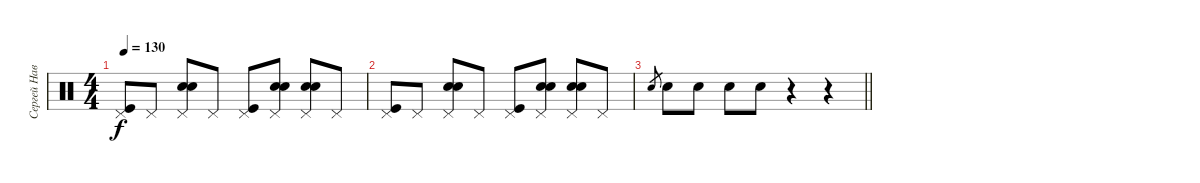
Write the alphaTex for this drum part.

\track ("Сергей Наветный" "Сергей Нав") {instrument percussion}
\staff {score}
\articulation defaults
\ts (4 4)
\tempo 130
\clef neutral
\ks c
("Kick (hit)" "Pedal Hi-Hat (hit)").8{dy f} "Pedal Hi-Hat (hit)".8 ("Hand Clap (hit)" "Snare (hit) 2" "Pedal Hi-Hat (hit)").8 "Pedal Hi-Hat (hit)".8 ("Kick (hit)" "Pedal Hi-Hat (hit)").8 ("Hand Clap (hit)" "Snare (hit) 2" "Pedal Hi-Hat (hit)").8 ("Hand Clap (hit)" "Snare (hit) 2" "Pedal Hi-Hat (hit)").8 "Pedal Hi-Hat (hit)".8 |
("Kick (hit)" "Pedal Hi-Hat (hit)").8 "Pedal Hi-Hat (hit)".8 ("Hand Clap (hit)" "Snare (hit) 2" "Pedal Hi-Hat (hit)").8 "Pedal Hi-Hat (hit)".8 ("Kick (hit)" "Pedal Hi-Hat (hit)").8 ("Hand Clap (hit)" "Snare (hit) 2" "Pedal Hi-Hat (hit)").8 ("Hand Clap (hit)" "Snare (hit) 2" "Pedal Hi-Hat (hit)").8 "Pedal Hi-Hat (hit)".8 |
\barLineRight lightlight "Snare (hit) 2".8{gr} "Snare (hit) 2".8 "Snare (hit) 2".8 "Snare (hit) 2".8 "Snare (hit) 2".8
r.4 r.4
